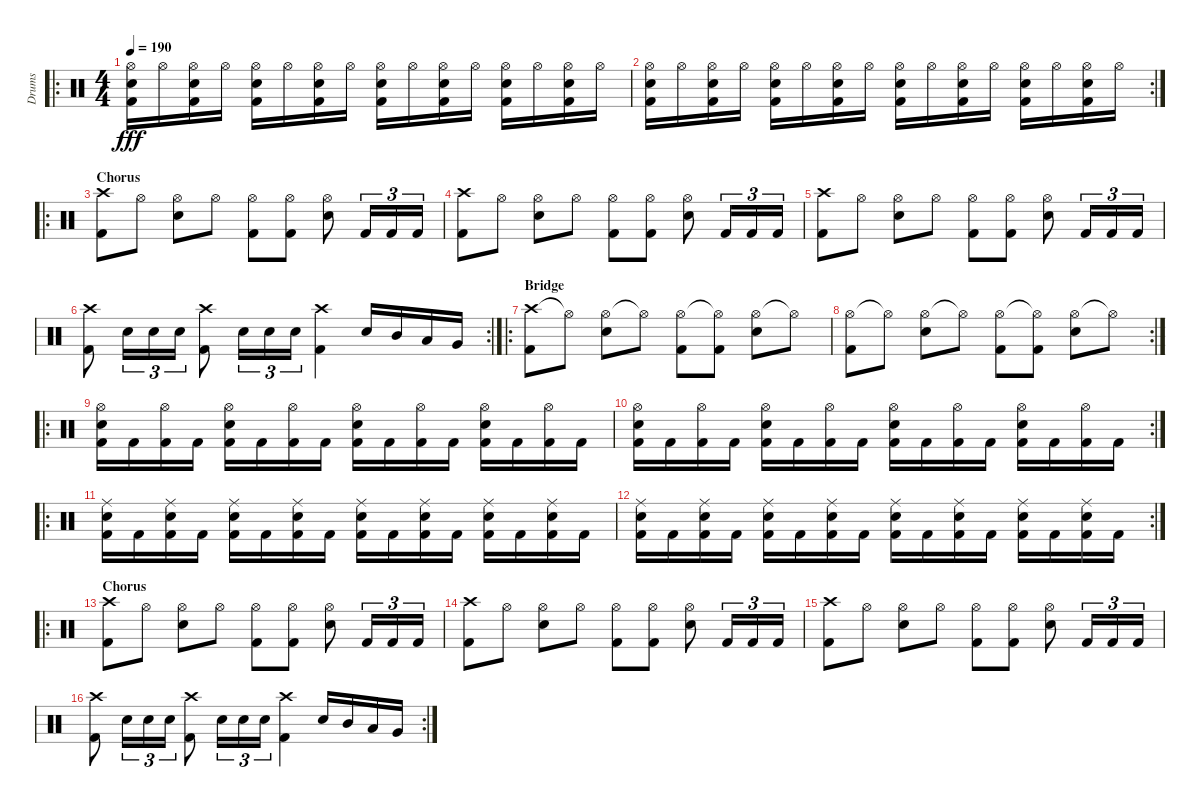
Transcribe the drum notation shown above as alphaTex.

\track ("Drums" "Drums") {instrument percussion}
\staff {score}
\articulation defaults
\ro
\ts (4 4)
\tempo 190
\clef neutral
\ks c
("Kick (hit) 2" "Hi-Hat (open)" "Electric Snare (hit)").16{dy fff} "Hi-Hat (open)".16 ("Kick (hit) 2" "Hi-Hat (open)" "Electric Snare (hit)").16 "Hi-Hat (open)".16 ("Kick (hit) 2" "Hi-Hat (open)" "Electric Snare (hit)").16 "Hi-Hat (open)".16 ("Kick (hit) 2" "Hi-Hat (open)" "Electric Snare (hit)").16 "Hi-Hat (open)".16 ("Kick (hit) 2" "Hi-Hat (open)" "Electric Snare (hit)").16 "Hi-Hat (open)".16 ("Kick (hit) 2" "Hi-Hat (open)" "Electric Snare (hit)").16 "Hi-Hat (open)".16 ("Kick (hit) 2" "Hi-Hat (open)" "Electric Snare (hit)").16 "Hi-Hat (open)".16 ("Kick (hit) 2" "Hi-Hat (open)" "Electric Snare (hit)").16 "Hi-Hat (open)".16 |
\rc 2
("Kick (hit) 2" "Hi-Hat (open)" "Electric Snare (hit)").16 "Hi-Hat (open)".16 ("Kick (hit) 2" "Hi-Hat (open)" "Electric Snare (hit)").16 "Hi-Hat (open)".16 ("Kick (hit) 2" "Hi-Hat (open)" "Electric Snare (hit)").16 "Hi-Hat (open)".16 ("Kick (hit) 2" "Hi-Hat (open)" "Electric Snare (hit)").16 "Hi-Hat (open)".16 ("Kick (hit) 2" "Hi-Hat (open)" "Electric Snare (hit)").16 "Hi-Hat (open)".16 ("Kick (hit) 2" "Hi-Hat (open)" "Electric Snare (hit)").16 "Hi-Hat (open)".16 ("Kick (hit) 2" "Hi-Hat (open)" "Electric Snare (hit)").16 "Hi-Hat (open)".16 ("Kick (hit) 2" "Hi-Hat (open)" "Electric Snare (hit)").16 "Hi-Hat (open)".16 |
\ro
\section ("" "Chorus")
("Crash high (hit)" "Kick (hit) 2").8 "Hi-Hat (open)".8 ("Hi-Hat (open)" "Electric Snare (hit)").8 "Hi-Hat (open)".8 ("Hi-Hat (open)" "Kick (hit) 2").8 ("Hi-Hat (open)" "Kick (hit) 2").8 ("Hi-Hat (open)" "Electric Snare (hit)").8 "Kick (hit) 2".16{tu (3 2)} "Kick (hit) 2".16{tu (3 2)} "Kick (hit) 2".16{tu (3 2)} |
("Crash high (hit)" "Kick (hit) 2").8 "Hi-Hat (open)".8 ("Hi-Hat (open)" "Electric Snare (hit)").8 "Hi-Hat (open)".8 ("Hi-Hat (open)" "Kick (hit) 2").8 ("Hi-Hat (open)" "Kick (hit) 2").8 ("Hi-Hat (open)" "Electric Snare (hit)").8 "Kick (hit) 2".16{tu (3 2)} "Kick (hit) 2".16{tu (3 2)} "Kick (hit) 2".16{tu (3 2)} |
("Crash high (hit)" "Kick (hit) 2").8 "Hi-Hat (open)".8 ("Hi-Hat (open)" "Electric Snare (hit)").8 "Hi-Hat (open)".8 ("Hi-Hat (open)" "Kick (hit) 2").8 ("Hi-Hat (open)" "Kick (hit) 2").8 ("Hi-Hat (open)" "Electric Snare (hit)").8 "Kick (hit) 2".16{tu (3 2)} "Kick (hit) 2".16{tu (3 2)} "Kick (hit) 2".16{tu (3 2)} |
\rc 2
("Crash high (hit)" "Kick (hit) 2").8 "Electric Snare (hit)".16{tu (3 2)} "Electric Snare (hit)".16{tu (3 2)} "Electric Snare (hit)".16{tu (3 2)} ("Crash high (hit)" "Kick (hit) 2").8 "Electric Snare (hit)".16{tu (3 2)} "Electric Snare (hit)".16{tu (3 2)} "Electric Snare (hit)".16{tu (3 2)} ("Crash high (hit)" "Kick (hit) 2").4 "Electric Snare (hit)".16 "Mid Tom (hit)".16 "Low Tom (hit)".16 "Very Low Tom (hit)".16 |
\ro
\section ("" "Bridge")
("Crash high (hit)" "Kick (hit) 2").8 "Hi-Hat (open)"{t}.8 ("Hi-Hat (open)" "Electric Snare (hit)").8 "Hi-Hat (open)"{t}.8 ("Hi-Hat (open)" "Kick (hit) 2").8 ("Hi-Hat (open)"{t} "Kick (hit) 2").8 ("Hi-Hat (open)" "Electric Snare (hit)").8 "Hi-Hat (open)"{t}.8 |
\rc 2
("Hi-Hat (open)" "Kick (hit) 2").8 "Hi-Hat (open)"{t}.8 ("Hi-Hat (open)" "Electric Snare (hit)").8 "Hi-Hat (open)"{t}.8 ("Hi-Hat (open)" "Kick (hit) 2").8 ("Hi-Hat (open)"{t} "Kick (hit) 2").8 ("Hi-Hat (open)" "Electric Snare (hit)").8 "Hi-Hat (open)"{t}.8 |
\ro
("Hi-Hat (open)" "Kick (hit) 2" "Electric Snare (hit)").16 "Kick (hit) 2".16 ("Hi-Hat (open)" "Kick (hit) 2").16 "Kick (hit) 2".16 ("Hi-Hat (open)" "Kick (hit) 2" "Electric Snare (hit)").16 "Kick (hit) 2".16 ("Hi-Hat (open)" "Kick (hit) 2").16 "Kick (hit) 2".16 ("Hi-Hat (open)" "Kick (hit) 2" "Electric Snare (hit)").16 "Kick (hit) 2".16 ("Hi-Hat (open)" "Kick (hit) 2").16 "Kick (hit) 2".16 ("Hi-Hat (open)" "Kick (hit) 2" "Electric Snare (hit)").16 "Kick (hit) 2".16 ("Hi-Hat (open)" "Kick (hit) 2").16 "Kick (hit) 2".16 |
\rc 2
("Hi-Hat (open)" "Kick (hit) 2" "Electric Snare (hit)").16 "Kick (hit) 2".16 ("Hi-Hat (open)" "Kick (hit) 2").16 "Kick (hit) 2".16 ("Hi-Hat (open)" "Kick (hit) 2" "Electric Snare (hit)").16 "Kick (hit) 2".16 ("Hi-Hat (open)" "Kick (hit) 2").16 "Kick (hit) 2".16 ("Hi-Hat (open)" "Kick (hit) 2" "Electric Snare (hit)").16 "Kick (hit) 2".16 ("Hi-Hat (open)" "Kick (hit) 2").16 "Kick (hit) 2".16 ("Hi-Hat (open)" "Kick (hit) 2" "Electric Snare (hit)").16 "Kick (hit) 2".16 ("Hi-Hat (open)" "Kick (hit) 2").16 "Kick (hit) 2".16 |
\ro
("Ride (middle)" "Kick (hit) 2" "Electric Snare (hit)").16 "Kick (hit) 2".16 ("Ride (middle)" "Kick (hit) 2" "Electric Snare (hit)").16 "Kick (hit) 2".16 ("Ride (middle)" "Kick (hit) 2" "Electric Snare (hit)").16 "Kick (hit) 2".16 ("Ride (middle)" "Kick (hit) 2" "Electric Snare (hit)").16 "Kick (hit) 2".16 ("Ride (middle)" "Kick (hit) 2" "Electric Snare (hit)").16 "Kick (hit) 2".16 ("Ride (middle)" "Kick (hit) 2" "Electric Snare (hit)").16 "Kick (hit) 2".16 ("Ride (middle)" "Kick (hit) 2" "Electric Snare (hit)").16 "Kick (hit) 2".16 ("Ride (middle)" "Kick (hit) 2" "Electric Snare (hit)").16 "Kick (hit) 2".16 |
\rc 2
("Ride (middle)" "Kick (hit) 2" "Electric Snare (hit)").16 "Kick (hit) 2".16 ("Ride (middle)" "Kick (hit) 2" "Electric Snare (hit)").16 "Kick (hit) 2".16 ("Ride (middle)" "Kick (hit) 2" "Electric Snare (hit)").16 "Kick (hit) 2".16 ("Ride (middle)" "Kick (hit) 2" "Electric Snare (hit)").16 "Kick (hit) 2".16 ("Ride (middle)" "Kick (hit) 2" "Electric Snare (hit)").16 "Kick (hit) 2".16 ("Ride (middle)" "Kick (hit) 2" "Electric Snare (hit)").16 "Kick (hit) 2".16 ("Ride (middle)" "Kick (hit) 2" "Electric Snare (hit)").16 "Kick (hit) 2".16 ("Ride (middle)" "Kick (hit) 2" "Electric Snare (hit)").16 "Kick (hit) 2".16 |
\ro
\section ("" "Chorus")
("Crash high (hit)" "Kick (hit) 2").8 "Hi-Hat (open)".8 ("Hi-Hat (open)" "Electric Snare (hit)").8 "Hi-Hat (open)".8 ("Hi-Hat (open)" "Kick (hit) 2").8 ("Hi-Hat (open)" "Kick (hit) 2").8 ("Hi-Hat (open)" "Electric Snare (hit)").8 "Kick (hit) 2".16{tu (3 2)} "Kick (hit) 2".16{tu (3 2)} "Kick (hit) 2".16{tu (3 2)} |
("Crash high (hit)" "Kick (hit) 2").8 "Hi-Hat (open)".8 ("Hi-Hat (open)" "Electric Snare (hit)").8 "Hi-Hat (open)".8 ("Hi-Hat (open)" "Kick (hit) 2").8 ("Hi-Hat (open)" "Kick (hit) 2").8 ("Hi-Hat (open)" "Electric Snare (hit)").8 "Kick (hit) 2".16{tu (3 2)} "Kick (hit) 2".16{tu (3 2)} "Kick (hit) 2".16{tu (3 2)} |
("Crash high (hit)" "Kick (hit) 2").8 "Hi-Hat (open)".8 ("Hi-Hat (open)" "Electric Snare (hit)").8 "Hi-Hat (open)".8 ("Hi-Hat (open)" "Kick (hit) 2").8 ("Hi-Hat (open)" "Kick (hit) 2").8 ("Hi-Hat (open)" "Electric Snare (hit)").8 "Kick (hit) 2".16{tu (3 2)} "Kick (hit) 2".16{tu (3 2)} "Kick (hit) 2".16{tu (3 2)} |
\rc 2
("Crash high (hit)" "Kick (hit) 2").8 "Electric Snare (hit)".16{tu (3 2)} "Electric Snare (hit)".16{tu (3 2)} "Electric Snare (hit)".16{tu (3 2)} ("Crash high (hit)" "Kick (hit) 2").8 "Electric Snare (hit)".16{tu (3 2)} "Electric Snare (hit)".16{tu (3 2)} "Electric Snare (hit)".16{tu (3 2)} ("Crash high (hit)" "Kick (hit) 2").4 "Electric Snare (hit)".16 "Mid Tom (hit)".16 "Low Tom (hit)".16 "Very Low Tom (hit)".16
